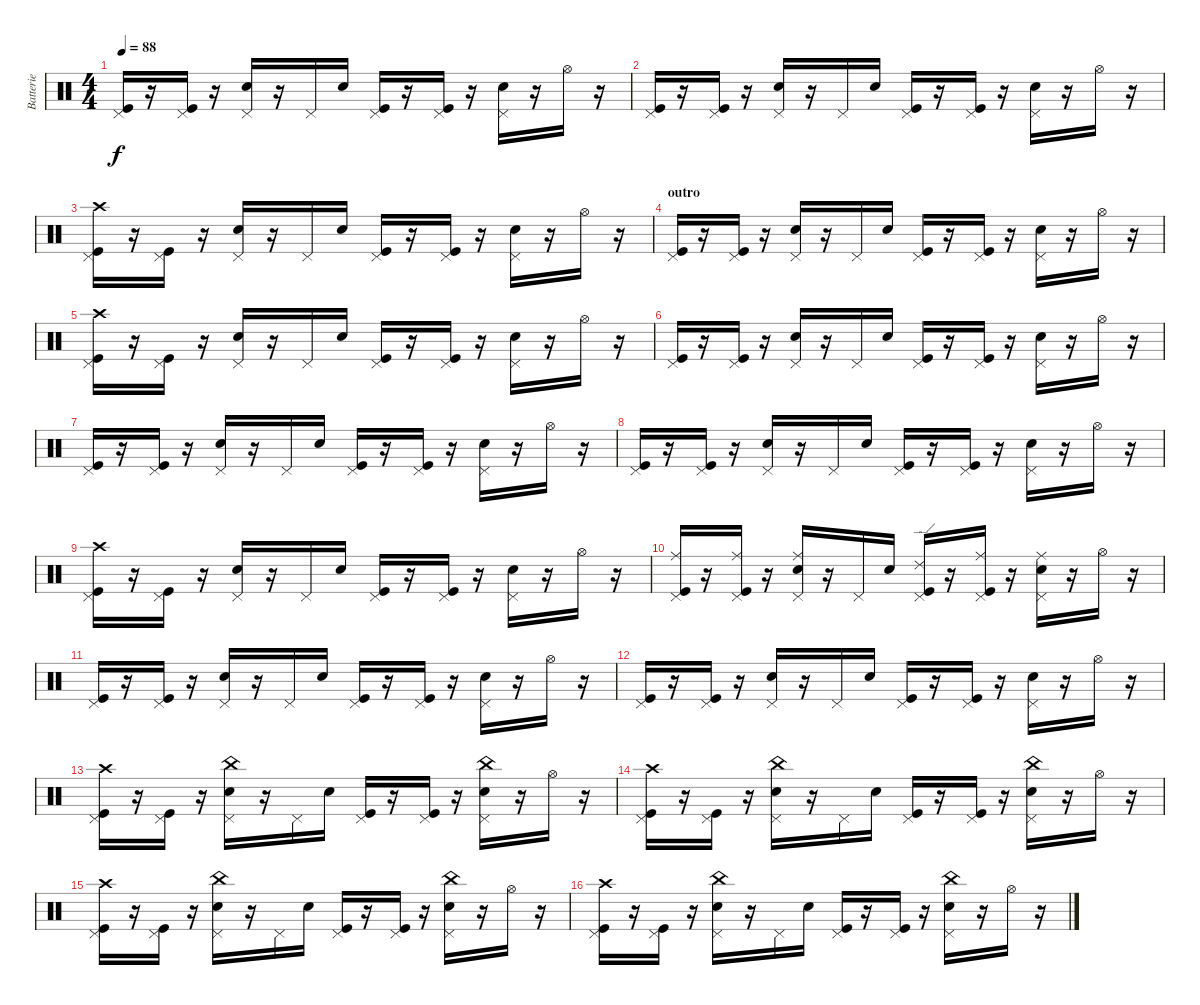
\track ("Batterie" "Batterie") {instrument percussion}
\staff {score}
\articulation defaults
\ts (4 4)
\tempo 88
\clef neutral
\ks c
("Pedal Hi-Hat (hit)" "Kick (hit)").16{dy f} r.16 ("Pedal Hi-Hat (hit)" "Kick (hit)").16 r.16 ("Pedal Hi-Hat (hit)" "Electric Snare (hit)").16 r.16 "Pedal Hi-Hat (hit)".16 "Electric Snare (hit)".16 ("Pedal Hi-Hat (hit)" "Kick (hit)").16 r.16 ("Pedal Hi-Hat (hit)" "Kick (hit)").16 r.16 ("Pedal Hi-Hat (hit)" "Electric Snare (hit)").16 r.16 "Hi-Hat (open)".16 r.16 |
("Pedal Hi-Hat (hit)" "Kick (hit)").16 r.16 ("Pedal Hi-Hat (hit)" "Kick (hit)").16 r.16 ("Pedal Hi-Hat (hit)" "Electric Snare (hit)").16 r.16 "Pedal Hi-Hat (hit)".16 "Electric Snare (hit)".16 ("Pedal Hi-Hat (hit)" "Kick (hit)").16 r.16 ("Pedal Hi-Hat (hit)" "Kick (hit)").16 r.16 ("Pedal Hi-Hat (hit)" "Electric Snare (hit)").16 r.16 "Hi-Hat (open)".16 r.16 |
("Pedal Hi-Hat (hit)" "Crash high (hit)" "Kick (hit)").16 r.16 ("Pedal Hi-Hat (hit)" "Kick (hit)").16 r.16 ("Pedal Hi-Hat (hit)" "Electric Snare (hit)").16 r.16 "Pedal Hi-Hat (hit)".16 "Electric Snare (hit)".16 ("Pedal Hi-Hat (hit)" "Kick (hit)").16 r.16 ("Pedal Hi-Hat (hit)" "Kick (hit)").16 r.16 ("Pedal Hi-Hat (hit)" "Electric Snare (hit)").16 r.16 "Hi-Hat (open)".16 r.16 |
\section ("" "outro")
("Pedal Hi-Hat (hit)" "Kick (hit)").16 r.16 ("Pedal Hi-Hat (hit)" "Kick (hit)").16 r.16 ("Pedal Hi-Hat (hit)" "Electric Snare (hit)").16 r.16 "Pedal Hi-Hat (hit)".16 "Electric Snare (hit)".16 ("Pedal Hi-Hat (hit)" "Kick (hit)").16 r.16 ("Pedal Hi-Hat (hit)" "Kick (hit)").16 r.16 ("Pedal Hi-Hat (hit)" "Electric Snare (hit)").16 r.16 "Hi-Hat (open)".16 r.16 |
("Pedal Hi-Hat (hit)" "Crash high (hit)" "Kick (hit)").16 r.16 ("Pedal Hi-Hat (hit)" "Kick (hit)").16 r.16 ("Pedal Hi-Hat (hit)" "Electric Snare (hit)").16 r.16 "Pedal Hi-Hat (hit)".16 "Electric Snare (hit)".16 ("Pedal Hi-Hat (hit)" "Kick (hit)").16 r.16 ("Pedal Hi-Hat (hit)" "Kick (hit)").16 r.16 ("Pedal Hi-Hat (hit)" "Electric Snare (hit)").16 r.16 "Hi-Hat (open)".16 r.16 |
("Pedal Hi-Hat (hit)" "Kick (hit)").16 r.16 ("Pedal Hi-Hat (hit)" "Kick (hit)").16 r.16 ("Pedal Hi-Hat (hit)" "Electric Snare (hit)").16 r.16 "Pedal Hi-Hat (hit)".16 "Electric Snare (hit)".16 ("Pedal Hi-Hat (hit)" "Kick (hit)").16 r.16 ("Pedal Hi-Hat (hit)" "Kick (hit)").16 r.16 ("Pedal Hi-Hat (hit)" "Electric Snare (hit)").16 r.16 "Hi-Hat (open)".16 r.16 |
("Pedal Hi-Hat (hit)" "Kick (hit)").16 r.16 ("Pedal Hi-Hat (hit)" "Kick (hit)").16 r.16 ("Pedal Hi-Hat (hit)" "Electric Snare (hit)").16 r.16 "Pedal Hi-Hat (hit)".16 "Electric Snare (hit)".16 ("Pedal Hi-Hat (hit)" "Kick (hit)").16 r.16 ("Pedal Hi-Hat (hit)" "Kick (hit)").16 r.16 ("Pedal Hi-Hat (hit)" "Electric Snare (hit)").16 r.16 "Hi-Hat (open)".16 r.16 |
("Pedal Hi-Hat (hit)" "Kick (hit)").16 r.16 ("Pedal Hi-Hat (hit)" "Kick (hit)").16 r.16 ("Pedal Hi-Hat (hit)" "Electric Snare (hit)").16 r.16 "Pedal Hi-Hat (hit)".16 "Electric Snare (hit)".16 ("Pedal Hi-Hat (hit)" "Kick (hit)").16 r.16 ("Pedal Hi-Hat (hit)" "Kick (hit)").16 r.16 ("Pedal Hi-Hat (hit)" "Electric Snare (hit)").16 r.16 "Hi-Hat (open)".16 r.16 |
("Pedal Hi-Hat (hit)" "Crash high (hit)" "Kick (hit)").16 r.16 ("Pedal Hi-Hat (hit)" "Kick (hit)").16 r.16 ("Pedal Hi-Hat (hit)" "Electric Snare (hit)").16 r.16 "Pedal Hi-Hat (hit)".16 "Electric Snare (hit)".16 ("Pedal Hi-Hat (hit)" "Kick (hit)").16 r.16 ("Pedal Hi-Hat (hit)" "Kick (hit)").16 r.16 ("Pedal Hi-Hat (hit)" "Electric Snare (hit)").16 r.16 "Hi-Hat (open)".16 r.16 |
("Pedal Hi-Hat (hit)" "Ride (middle)" "Kick (hit)").16 r.16 ("Pedal Hi-Hat (hit)" "Ride (middle)" "Kick (hit)").16 r.16 ("Pedal Hi-Hat (hit)" "Ride (middle)" "Electric Snare (hit)").16 r.16 "Pedal Hi-Hat (hit)".16 "Electric Snare (hit)".16 ("Pedal Hi-Hat (hit)" "Ride (edge) 2" "Kick (hit)").16 r.16 ("Pedal Hi-Hat (hit)" "Ride (middle)" "Kick (hit)").16 r.16 ("Pedal Hi-Hat (hit)" "Ride (middle)" "Electric Snare (hit)").16 r.16 "Hi-Hat (open)".16 r.16 |
("Pedal Hi-Hat (hit)" "Kick (hit)").16 r.16 ("Pedal Hi-Hat (hit)" "Kick (hit)").16 r.16 ("Pedal Hi-Hat (hit)" "Electric Snare (hit)").16 r.16 "Pedal Hi-Hat (hit)".16 "Electric Snare (hit)".16 ("Pedal Hi-Hat (hit)" "Kick (hit)").16 r.16 ("Pedal Hi-Hat (hit)" "Kick (hit)").16 r.16 ("Pedal Hi-Hat (hit)" "Electric Snare (hit)").16 r.16 "Hi-Hat (open)".16 r.16 |
("Pedal Hi-Hat (hit)" "Kick (hit)").16 r.16 ("Pedal Hi-Hat (hit)" "Kick (hit)").16 r.16 ("Pedal Hi-Hat (hit)" "Electric Snare (hit)").16 r.16 "Pedal Hi-Hat (hit)".16 "Electric Snare (hit)".16 ("Pedal Hi-Hat (hit)" "Kick (hit)").16 r.16 ("Pedal Hi-Hat (hit)" "Kick (hit)").16 r.16 ("Pedal Hi-Hat (hit)" "Electric Snare (hit)").16 r.16 "Hi-Hat (open)".16 r.16 |
("Pedal Hi-Hat (hit)" "Crash high (hit)" "Kick (hit)").16 r.16 ("Pedal Hi-Hat (hit)" "Kick (hit)").16 r.16 ("Pedal Hi-Hat (hit)" "China (hit)" "Electric Snare (hit)").16 r.16 "Pedal Hi-Hat (hit)".16 "Electric Snare (hit)".16 ("Pedal Hi-Hat (hit)" "Kick (hit)").16 r.16 ("Pedal Hi-Hat (hit)" "Kick (hit)").16 r.16 ("Pedal Hi-Hat (hit)" "China (hit)" "Electric Snare (hit)").16 r.16 "Hi-Hat (open)".16 r.16 |
("Pedal Hi-Hat (hit)" "Crash high (hit)" "Kick (hit)").16 r.16 ("Pedal Hi-Hat (hit)" "Kick (hit)").16 r.16 ("Pedal Hi-Hat (hit)" "China (hit)" "Electric Snare (hit)").16 r.16 "Pedal Hi-Hat (hit)".16 "Electric Snare (hit)".16 ("Pedal Hi-Hat (hit)" "Kick (hit)").16 r.16 ("Pedal Hi-Hat (hit)" "Kick (hit)").16 r.16 ("Pedal Hi-Hat (hit)" "China (hit)" "Electric Snare (hit)").16 r.16 "Hi-Hat (open)".16 r.16 |
("Pedal Hi-Hat (hit)" "Crash high (hit)" "Kick (hit)").16 r.16 ("Pedal Hi-Hat (hit)" "Kick (hit)").16 r.16 ("Pedal Hi-Hat (hit)" "China (hit)" "Electric Snare (hit)").16 r.16 "Pedal Hi-Hat (hit)".16 "Electric Snare (hit)".16 ("Pedal Hi-Hat (hit)" "Kick (hit)").16 r.16 ("Pedal Hi-Hat (hit)" "Kick (hit)").16 r.16 ("Pedal Hi-Hat (hit)" "China (hit)" "Electric Snare (hit)").16 r.16 "Hi-Hat (open)".16 r.16 |
("Pedal Hi-Hat (hit)" "Crash high (hit)" "Kick (hit)").16 r.16 ("Pedal Hi-Hat (hit)" "Kick (hit)").16 r.16 ("Pedal Hi-Hat (hit)" "China (hit)" "Electric Snare (hit)").16 r.16 "Pedal Hi-Hat (hit)".16 "Electric Snare (hit)".16 ("Pedal Hi-Hat (hit)" "Kick (hit)").16 r.16 ("Pedal Hi-Hat (hit)" "Kick (hit)").16 r.16 ("Pedal Hi-Hat (hit)" "China (hit)" "Electric Snare (hit)").16 r.16 "Hi-Hat (open)".16 r.16
